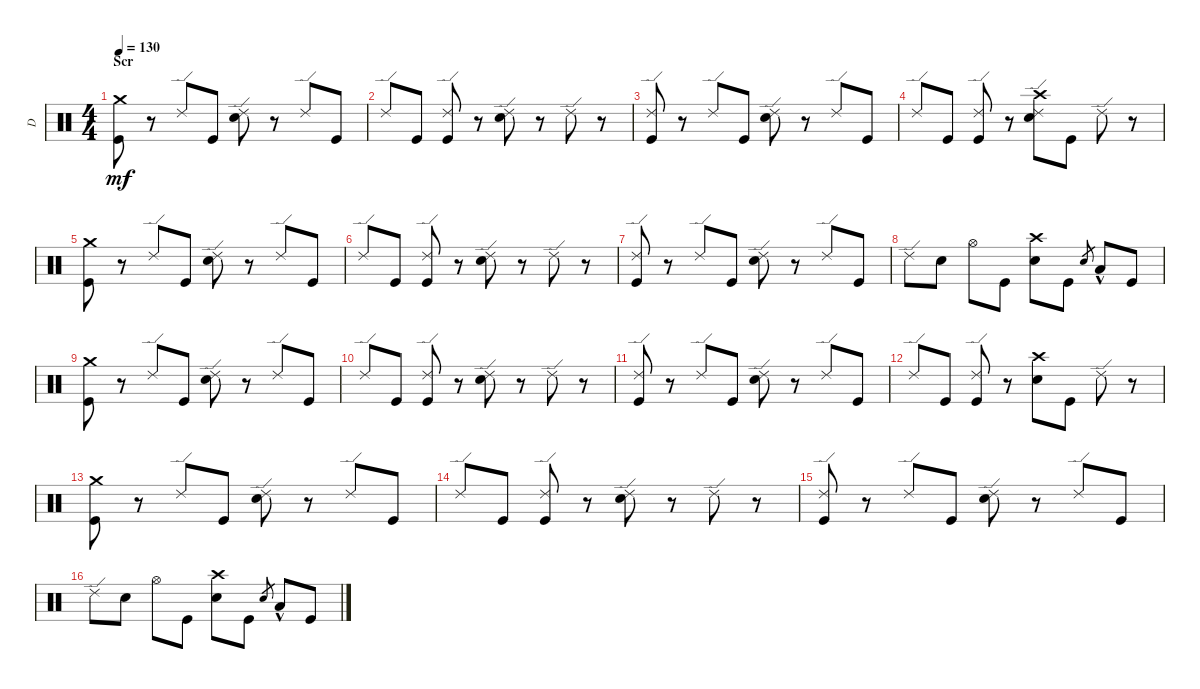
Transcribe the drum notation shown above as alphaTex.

\track ("D" "D") {instrument percussion}
\staff {score}
\articulation defaults
\ts (4 4)
\section ("" "Scr")
\tempo 130
\clef neutral
\ks c
("Kick (hit)" "Crash medium (hit)").8{dy mf} r.8 "Ride (edge) 2".8 "Kick (hit)".8 ("Ride (edge) 2" "Snare (hit) 2").8 r.8 "Ride (edge) 2".8 "Kick (hit)".8 |
"Ride (edge) 2".8 "Kick (hit)".8 ("Ride (edge) 2" "Kick (hit)").8 r.8 ("Ride (edge) 2" "Snare (hit) 2").8 r.8 "Ride (edge) 2".8 r.8 |
("Ride (edge) 2" "Kick (hit)").8 r.8 "Ride (edge) 2".8 "Kick (hit)".8 ("Ride (edge) 2" "Snare (hit) 2").8 r.8 "Ride (edge) 2".8 "Kick (hit)".8 |
"Ride (edge) 2".8 "Kick (hit)".8 ("Ride (edge) 2" "Kick (hit)").8 r.8 ("Ride (edge) 2" "Snare (hit) 2" "Crash high (hit)").8 "Kick (hit)".8 "Ride (edge) 2".8 r.8 |
("Kick (hit)" "Crash medium (hit)").8 r.8 "Ride (edge) 2".8 "Kick (hit)".8 ("Ride (edge) 2" "Snare (hit) 2").8 r.8 "Ride (edge) 2".8 "Kick (hit)".8 |
"Ride (edge) 2".8 "Kick (hit)".8 ("Ride (edge) 2" "Kick (hit)").8 r.8 ("Ride (edge) 2" "Snare (hit) 2").8 r.8 "Ride (edge) 2".8 r.8 |
("Ride (edge) 2" "Kick (hit)").8 r.8 "Ride (edge) 2".8 "Kick (hit)".8 ("Ride (edge) 2" "Snare (hit) 2").8 r.8 "Ride (edge) 2".8 "Kick (hit)".8 |
"Ride (edge) 2".8 "Snare (hit) 2".8 "Hi-Hat (open)".8 "Kick (hit)".8 ("Snare (hit) 2" "Crash high (hit)").8 "Kick (hit)".8 "Snare (hit)".8{gr} "Low Floor Tom (hit)"{hac}.8 "Kick (hit)".8 |
("Kick (hit)" "Crash medium (hit)").8 r.8 "Ride (edge) 2".8 "Kick (hit)".8 ("Ride (edge) 2" "Snare (hit) 2").8 r.8 "Ride (edge) 2".8 "Kick (hit)".8 |
"Ride (edge) 2".8 "Kick (hit)".8 ("Ride (edge) 2" "Kick (hit)").8 r.8 ("Ride (edge) 2" "Snare (hit) 2").8 r.8 "Ride (edge) 2".8 r.8 |
("Ride (edge) 2" "Kick (hit)").8 r.8 "Ride (edge) 2".8 "Kick (hit)".8 ("Ride (edge) 2" "Snare (hit) 2").8 r.8 "Ride (edge) 2".8 "Kick (hit)".8 |
"Ride (edge) 2".8 "Kick (hit)".8 ("Ride (edge) 2" "Kick (hit)").8 r.8 ("Snare (hit) 2" "Crash high (hit)").8 "Kick (hit)".8 "Ride (edge) 2".8 r.8 |
("Kick (hit)" "Crash medium (hit)").8 r.8 "Ride (edge) 2".8 "Kick (hit)".8 ("Ride (edge) 2" "Snare (hit) 2").8 r.8 "Ride (edge) 2".8 "Kick (hit)".8 |
"Ride (edge) 2".8 "Kick (hit)".8 ("Ride (edge) 2" "Kick (hit)").8 r.8 ("Ride (edge) 2" "Snare (hit) 2").8 r.8 "Ride (edge) 2".8 r.8 |
("Ride (edge) 2" "Kick (hit)").8 r.8 "Ride (edge) 2".8 "Kick (hit)".8 ("Ride (edge) 2" "Snare (hit) 2").8 r.8 "Ride (edge) 2".8 "Kick (hit)".8 |
"Ride (edge) 2".8 "Snare (hit) 2".8 "Hi-Hat (open)".8 "Kick (hit)".8 ("Snare (hit) 2" "Crash high (hit)").8 "Kick (hit)".8 "Snare (hit)".8{gr} "Low Floor Tom (hit)"{hac}.8 "Kick (hit)".8
